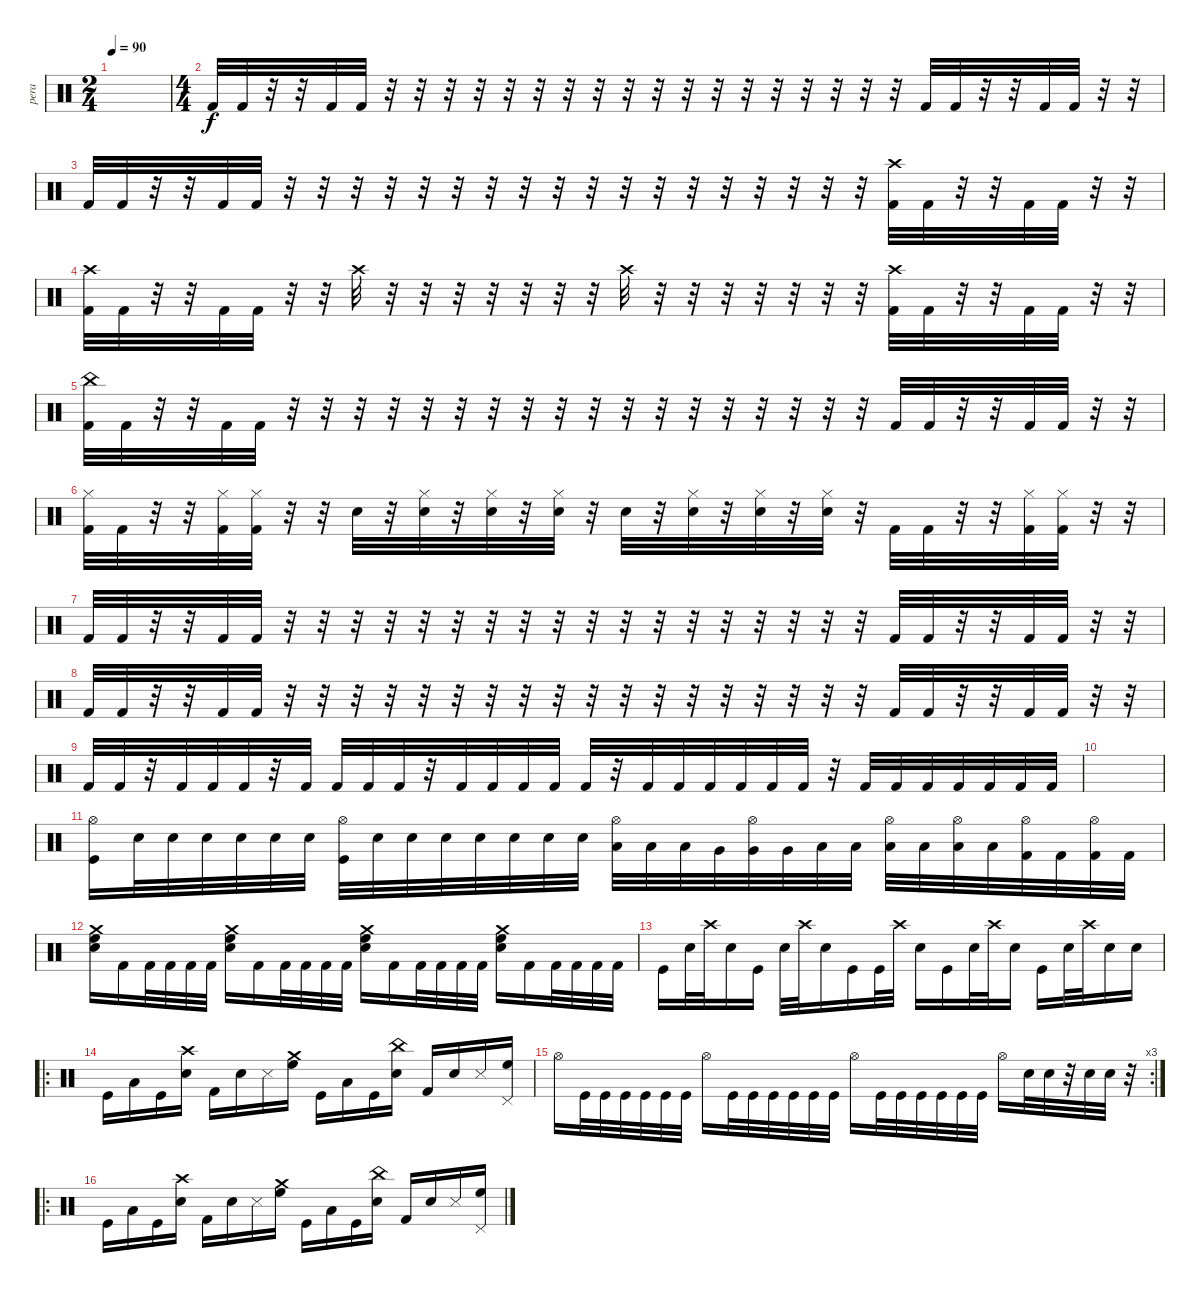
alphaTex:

\track ("pera" "pera") {instrument percussion}
\staff {score}
\articulation defaults
\ts (2 4)
\tempo 90
\clef neutral
\ks c
|
\ts (4 4)
"Kick (hit) 2".32 "Kick (hit) 2".32 r.32 r.32 "Kick (hit) 2".32 "Kick (hit) 2".32 r.32 r.32 r.32 r.32 r.32 r.32 r.32 r.32 r.32 r.32 r.32 r.32 r.32 r.32 r.32 r.32 r.32 r.32 "Kick (hit) 2".32 "Kick (hit) 2".32 r.32 r.32 "Kick (hit) 2".32 "Kick (hit) 2".32 r.32 r.32 |
"Kick (hit) 2".32 "Kick (hit) 2".32 r.32 r.32 "Kick (hit) 2".32 "Kick (hit) 2".32 r.32 r.32 r.32 r.32 r.32 r.32 r.32 r.32 r.32 r.32 r.32 r.32 r.32 r.32 r.32 r.32 r.32 r.32 ("Crash high (hit)" "Kick (hit) 2").32 "Kick (hit) 2".32 r.32 r.32 "Kick (hit) 2".32 "Kick (hit) 2".32 r.32 r.32 |
("Crash high (hit)" "Kick (hit) 2").32 "Kick (hit) 2".32 r.32 r.32 "Kick (hit) 2".32 "Kick (hit) 2".32 r.32 r.32 "Crash high (hit)".32 r.32 r.32 r.32 r.32 r.32 r.32 r.32 "Crash high (hit)".32 r.32 r.32 r.32 r.32 r.32 r.32 r.32 ("Crash high (hit)" "Kick (hit) 2").32 "Kick (hit) 2".32 r.32 r.32 "Kick (hit) 2".32 "Kick (hit) 2".32 r.32 r.32 |
("China (hit)" "Kick (hit) 2").32 "Kick (hit) 2".32 r.32 r.32 "Kick (hit) 2".32 "Kick (hit) 2".32 r.32 r.32 r.32 r.32 r.32 r.32 r.32 r.32 r.32 r.32 r.32 r.32 r.32 r.32 r.32 r.32 r.32 r.32 "Kick (hit) 2".32 "Kick (hit) 2".32 r.32 r.32 "Kick (hit) 2".32 "Kick (hit) 2".32 r.32 r.32 |
("Hi-Hat (closed)" "Kick (hit) 2").32 "Kick (hit) 2".32 r.32 r.32 ("Hi-Hat (closed)" "Kick (hit) 2").32 ("Hi-Hat (closed)" "Kick (hit) 2").32 r.32 r.32 "Electric Snare (hit)".32 r.32 ("Hi-Hat (closed)" "Electric Snare (hit)").32 r.32 ("Hi-Hat (closed)" "Electric Snare (hit)").32 r.32 ("Hi-Hat (closed)" "Electric Snare (hit)").32 r.32 "Electric Snare (hit)".32 r.32 ("Hi-Hat (closed)" "Electric Snare (hit)").32 r.32 ("Hi-Hat (closed)" "Electric Snare (hit)").32 r.32 ("Hi-Hat (closed)" "Electric Snare (hit)").32 r.32 "Kick (hit) 2".32 "Kick (hit) 2".32 r.32 r.32 ("Hi-Hat (closed)" "Kick (hit) 2").32 ("Hi-Hat (closed)" "Kick (hit) 2").32 r.32 r.32 |
"Kick (hit) 2".32 "Kick (hit) 2".32 r.32 r.32 "Kick (hit) 2".32 "Kick (hit) 2".32 r.32 r.32 r.32 r.32 r.32 r.32 r.32 r.32 r.32 r.32 r.32 r.32 r.32 r.32 r.32 r.32 r.32 r.32 "Kick (hit) 2".32 "Kick (hit) 2".32 r.32 r.32 "Kick (hit) 2".32 "Kick (hit) 2".32 r.32 r.32 |
"Kick (hit) 2".32 "Kick (hit) 2".32 r.32 r.32 "Kick (hit) 2".32 "Kick (hit) 2".32 r.32 r.32 r.32 r.32 r.32 r.32 r.32 r.32 r.32 r.32 r.32 r.32 r.32 r.32 r.32 r.32 r.32 r.32 "Kick (hit) 2".32 "Kick (hit) 2".32 r.32 r.32 "Kick (hit) 2".32 "Kick (hit) 2".32 r.32 r.32 |
"Kick (hit) 2".32 "Kick (hit) 2".32 r.32 "Kick (hit) 2".32 "Kick (hit) 2".32 "Kick (hit) 2".32 r.32 "Kick (hit) 2".32 "Kick (hit) 2".32 "Kick (hit) 2".32 "Kick (hit) 2".32 r.32 "Kick (hit) 2".32 "Kick (hit) 2".32 "Kick (hit) 2".32 "Kick (hit) 2".32 "Kick (hit) 2".32 r.32 "Kick (hit) 2".32 "Kick (hit) 2".32 "Kick (hit) 2".32 "Kick (hit) 2".32 "Kick (hit) 2".32 "Kick (hit) 2".32 r.32 "Kick (hit) 2".32 "Kick (hit) 2".32 "Kick (hit) 2".32 "Kick (hit) 2".32 "Kick (hit) 2".32 "Kick (hit) 2".32 "Kick (hit) 2".32 |
|
("Hi-Hat (open)" "Kick (hit)").16{volume 4} "Electric Snare (hit)".32 "Electric Snare (hit)".32 "Electric Snare (hit)".32 "Electric Snare (hit)".32 "Electric Snare (hit)".32 "Electric Snare (hit)".32 ("Hi-Hat (open)" "Kick (hit)").32{volume 6} "Electric Snare (hit)".32 "Electric Snare (hit)".32 "Electric Snare (hit)".32 "Electric Snare (hit)".32 "Snare (hit) 2".32 "Snare (hit) 2".32 "Snare (hit) 2".32 ("Hi-Hat (open)" "Low Tom (hit)").32{volume 10} "Low Tom (hit)".32 "Low Tom (hit)".32 "Very Low Tom (hit)".32 ("Hi-Hat (open)" "Very Low Tom (hit)").32{volume 12} "Very Low Tom (hit)".32 "Low Floor Tom (hit)".32 "Low Floor Tom (hit)".32 ("Hi-Hat (open)" "Low Floor Tom (hit)").32{volume 13} "Low Floor Tom (hit)".32 ("Hi-Hat (open)" "Low Floor Tom (hit)").32 "Low Floor Tom (hit)".32 ("Hi-Hat (open)" "Kick (hit) 2").32{volume 14} "Kick (hit) 2".32 ("Hi-Hat (open)" "Kick (hit) 2").32 "Kick (hit) 2".32 |
("Crash medium (hit)" "High Floor Tom (hit)" "Electric Snare (hit)").16{volume 15} "Kick (hit) 2".16 "Kick (hit) 2".32 "Kick (hit) 2".32 "Kick (hit) 2".32 "Kick (hit) 2".32 ("Crash medium (hit)" "High Floor Tom (hit)" "Electric Snare (hit)").16 "Kick (hit) 2".16 "Kick (hit) 2".32 "Kick (hit) 2".32 "Kick (hit) 2".32 "Kick (hit) 2".32 ("Crash medium (hit)" "High Floor Tom (hit)" "Electric Snare (hit)").16 "Kick (hit) 2".16 "Kick (hit) 2".32 "Kick (hit) 2".32 "Kick (hit) 2".32 "Kick (hit) 2".32 ("Crash medium (hit)" "High Floor Tom (hit)" "Electric Snare (hit)").16 "Kick (hit) 2".16 "Kick (hit) 2".32 "Kick (hit) 2".32 "Kick (hit) 2".32 "Kick (hit) 2".32 |
"Kick (hit)".16 "Electric Snare (hit)".32 "Crash high (hit)".32 "Electric Snare (hit)".16 "Kick (hit)".16 "Electric Snare (hit)".32 "Crash high (hit)".32 "Electric Snare (hit)".16 "Kick (hit)".16 "Kick (hit)".32 "Crash high (hit)".32 "Electric Snare (hit)".16 "Kick (hit)".16 "Electric Snare (hit)".32 "Crash high (hit)".32 "Electric Snare (hit)".16 "Kick (hit)".16 "Electric Snare (hit)".32 "Crash high (hit)".32 "Electric Snare (hit)".16 "Electric Snare (hit)".16 |
\ro "Kick (hit)".16 "Low Tom (hit)".16 "Kick (hit)".16
("Crash high (hit)" "Electric Snare (hit)").16 "Kick (hit) 2".16 "Snare (hit) 2".16 "Metronome (hit)".16 ("Crash medium (hit)" "High Floor Tom (hit)").16 "Kick (hit)".16 "Low Tom (hit)".16 "Kick (hit)".16 ("China (hit)" "Electric Snare (hit)").16 "Kick (hit) 2".16 "Snare (hit) 2".16 "Metronome (hit)".16 ("Pedal Hi-Hat (hit)" "High Floor Tom (hit)").16 |
\rc 3 "Hi-Hat (open)".16 "Kick (hit)".32 "Kick (hit)".32 "Kick (hit)".32 "Kick (hit)".32 "Kick (hit)".32 "Kick (hit)".32 "Hi-Hat (open)".16 "Kick (hit)".32 "Kick (hit)".32 "Kick (hit)".32 "Kick (hit)".32 "Kick (hit)".32 "Kick (hit)".32 "Hi-Hat (open)".16 "Kick (hit)".32 "Kick (hit)".32 "Kick (hit)".32 "Kick (hit)".32 "Kick (hit)".32 "Kick (hit)".32 "Hi-Hat (open)".16 "Electric Snare (hit)".32 "Electric Snare (hit)".32
r.32 "Electric Snare (hit)".32 "Electric Snare (hit)".32 r.32 |
\ro "Kick (hit)".16 "Low Tom (hit)".16 "Kick (hit)".16
("Crash high (hit)" "Electric Snare (hit)").16 "Kick (hit) 2".16 "Snare (hit) 2".16 "Metronome (hit)".16 ("Crash medium (hit)" "High Floor Tom (hit)").16 "Kick (hit)".16 "Low Tom (hit)".16 "Kick (hit)".16 ("China (hit)" "Electric Snare (hit)").16 "Kick (hit) 2".16 "Snare (hit) 2".16 "Metronome (hit)".16 ("Pedal Hi-Hat (hit)" "High Floor Tom (hit)").16
